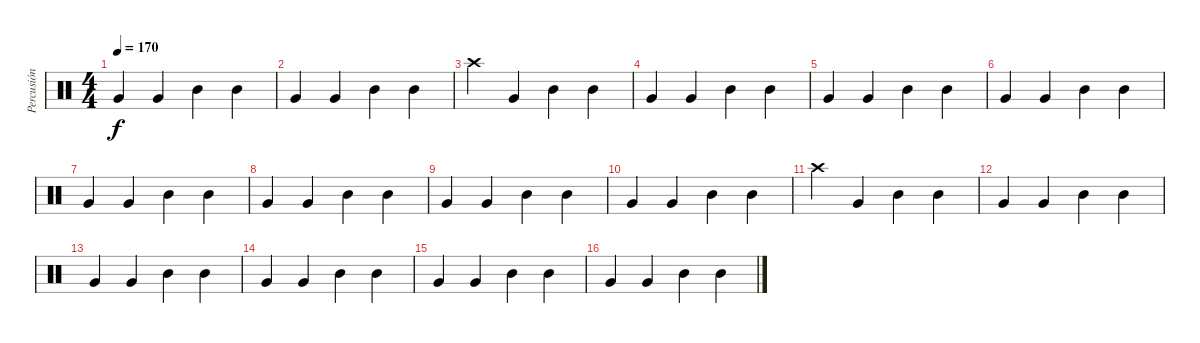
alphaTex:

\track ("Percusión" "Percusión") {instrument percussion}
\staff {score}
\articulation defaults
\ts (4 4)
\tempo 170
\clef neutral
\ks c "Very Low Tom (hit)".4{dy f} "Very Low Tom (hit)".4 "Mid Tom (hit)".4 "Mid Tom (hit)".4
|
"Very Low Tom (hit)".4 "Very Low Tom (hit)".4 "Mid Tom (hit)".4 "Mid Tom (hit)".4 |
"Crash high (hit)".4 "Very Low Tom (hit)".4 "Mid Tom (hit)".4 "Mid Tom (hit)".4 |
"Very Low Tom (hit)".4 "Very Low Tom (hit)".4 "Mid Tom (hit)".4 "Mid Tom (hit)".4 |
"Very Low Tom (hit)".4 "Very Low Tom (hit)".4 "Mid Tom (hit)".4 "Mid Tom (hit)".4 |
"Very Low Tom (hit)".4 "Very Low Tom (hit)".4 "Mid Tom (hit)".4 "Mid Tom (hit)".4 |
"Very Low Tom (hit)".4 "Very Low Tom (hit)".4 "Mid Tom (hit)".4 "Mid Tom (hit)".4 |
"Very Low Tom (hit)".4 "Very Low Tom (hit)".4 "Mid Tom (hit)".4 "Mid Tom (hit)".4 |
"Very Low Tom (hit)".4 "Very Low Tom (hit)".4 "Mid Tom (hit)".4 "Mid Tom (hit)".4 |
"Very Low Tom (hit)".4 "Very Low Tom (hit)".4 "Mid Tom (hit)".4 "Mid Tom (hit)".4 |
"Crash high (hit)".4 "Very Low Tom (hit)".4 "Mid Tom (hit)".4 "Mid Tom (hit)".4 |
"Very Low Tom (hit)".4 "Very Low Tom (hit)".4 "Mid Tom (hit)".4 "Mid Tom (hit)".4 |
"Very Low Tom (hit)".4 "Very Low Tom (hit)".4 "Mid Tom (hit)".4 "Mid Tom (hit)".4 |
"Very Low Tom (hit)".4 "Very Low Tom (hit)".4 "Mid Tom (hit)".4 "Mid Tom (hit)".4 |
"Very Low Tom (hit)".4 "Very Low Tom (hit)".4 "Mid Tom (hit)".4 "Mid Tom (hit)".4 |
"Very Low Tom (hit)".4 "Very Low Tom (hit)".4 "Mid Tom (hit)".4 "Mid Tom (hit)".4
